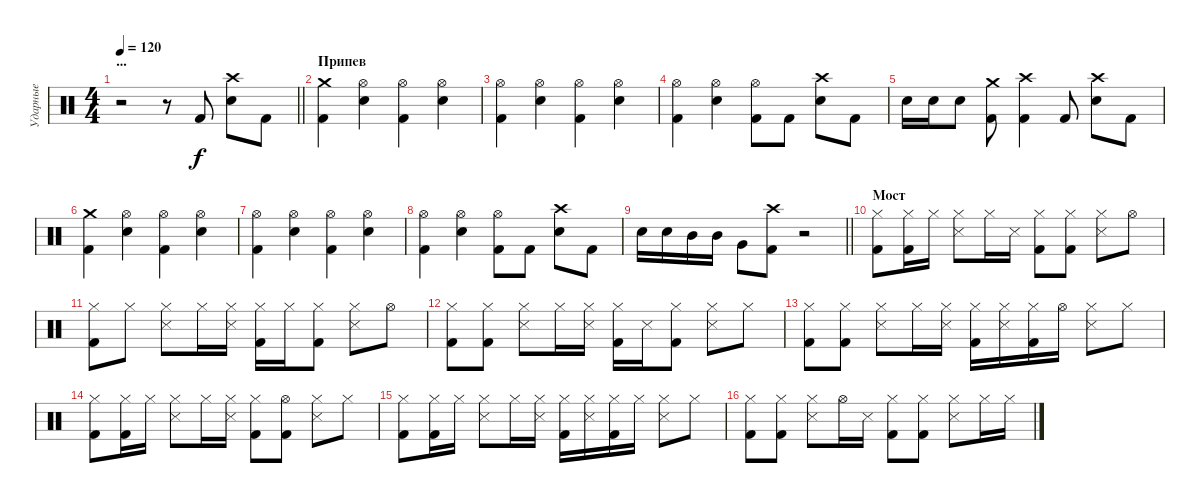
\track ("Ударные" "Ударные") {instrument percussion}
\staff {score}
\articulation defaults
\ts (4 4)
\section ("" "...")
\tempo 120
\clef neutral
\barLineRight lightlight
\ks c
r.2{dy ff} r.8 "Kick (hit) 2".8{dy f} ("Snare (hit) 2" "Crash high (hit)").8 "Kick (hit) 2".8 |
\section ("" "Припев")
("Kick (hit) 2" "Crash medium (hit)").4 ("Snare (hit) 2" "Hi-Hat (open)").4 ("Kick (hit) 2" "Hi-Hat (open)").4 ("Snare (hit) 2" "Hi-Hat (open)").4 |
("Kick (hit) 2" "Hi-Hat (open)").4 ("Snare (hit) 2" "Hi-Hat (open)").4 ("Kick (hit) 2" "Hi-Hat (open)").4 ("Snare (hit) 2" "Hi-Hat (open)").4 |
("Kick (hit) 2" "Hi-Hat (open)").4 ("Snare (hit) 2" "Hi-Hat (open)").4 ("Kick (hit) 2" "Hi-Hat (open)").8 "Kick (hit) 2".8 ("Snare (hit) 2" "Crash high (hit)").8 "Kick (hit) 2".8 |
"Snare (hit) 2".16 "Snare (hit) 2".16 "Snare (hit) 2".8 ("Kick (hit) 2" "Crash medium (hit)").8 ("Kick (hit) 2" "Crash high (hit)").4 "Kick (hit) 2".8 ("Snare (hit) 2" "Crash high (hit)").8 "Kick (hit) 2".8 |
("Kick (hit) 2" "Crash medium (hit)").4 ("Snare (hit) 2" "Hi-Hat (open)").4 ("Kick (hit) 2" "Hi-Hat (open)").4 ("Snare (hit) 2" "Hi-Hat (open)").4 |
("Kick (hit) 2" "Hi-Hat (open)").4 ("Snare (hit) 2" "Hi-Hat (open)").4 ("Kick (hit) 2" "Hi-Hat (open)").4 ("Snare (hit) 2" "Hi-Hat (open)").4 |
("Kick (hit) 2" "Hi-Hat (open)").4 ("Snare (hit) 2" "Hi-Hat (open)").4 ("Kick (hit) 2" "Hi-Hat (open)").8 "Kick (hit) 2".8 ("Snare (hit) 2" "Crash high (hit)").8 "Kick (hit) 2".8 |
\barLineRight lightlight "Snare (hit) 2".16 "Snare (hit) 2".16 "Mid Tom (hit)".16 "Mid Tom (hit)".16 "Very Low Tom (hit)".8
("Kick (hit) 2" "Crash high (hit)").8 r.2 |
\section ("" "Мост")
("Kick (hit) 2" "Hi-Hat (closed)").8 ("Kick (hit) 2" "Hi-Hat (closed)").16 "Hi-Hat (closed)".16 ("Snare (side stick) 3" "Hi-Hat (closed)").8 "Hi-Hat (closed)".16 "Snare (side stick) 3".16 ("Kick (hit) 2" "Hi-Hat (closed)").8 ("Kick (hit) 2" "Hi-Hat (closed)").8 ("Snare (side stick) 3" "Hi-Hat (closed)").8 "Hi-Hat (open)".8 |
("Kick (hit) 2" "Hi-Hat (closed)").8 "Hi-Hat (closed)".8 ("Snare (side stick) 3" "Hi-Hat (closed)").8 "Hi-Hat (closed)".16 ("Snare (side stick) 3" "Hi-Hat (closed)").16 ("Kick (hit) 2" "Hi-Hat (closed)").16 "Hi-Hat (closed)".16 ("Kick (hit) 2" "Hi-Hat (closed)").8 ("Snare (side stick) 3" "Hi-Hat (closed)").8 "Hi-Hat (open)".8 |
("Kick (hit) 2" "Hi-Hat (closed)").8 ("Kick (hit) 2" "Hi-Hat (closed)").8 ("Snare (side stick) 3" "Hi-Hat (closed)").8 "Hi-Hat (closed)".16 ("Snare (side stick) 3" "Hi-Hat (closed)").16 ("Kick (hit) 2" "Hi-Hat (closed)").16 "Snare (side stick) 3".16 ("Kick (hit) 2" "Hi-Hat (closed)").8 ("Snare (side stick) 3" "Hi-Hat (closed)").8 "Hi-Hat (closed)".8 |
("Kick (hit) 2" "Hi-Hat (closed)").8 ("Kick (hit) 2" "Hi-Hat (closed)").8 ("Snare (side stick) 3" "Hi-Hat (closed)").8 "Hi-Hat (closed)".16 ("Snare (side stick) 3" "Hi-Hat (closed)").16 ("Kick (hit) 2" "Hi-Hat (closed)").16 ("Snare (side stick) 3" "Hi-Hat (closed)").16 ("Kick (hit) 2" "Hi-Hat (closed)").16 "Hi-Hat (open)".16 ("Snare (side stick) 3" "Hi-Hat (closed)").8 "Hi-Hat (closed)".8 |
("Kick (hit) 2" "Hi-Hat (closed)").8 ("Kick (hit) 2" "Hi-Hat (closed)").16 "Hi-Hat (closed)".16 ("Snare (side stick) 3" "Hi-Hat (closed)").8 "Hi-Hat (closed)".16 ("Snare (side stick) 3" "Hi-Hat (closed)").16 ("Kick (hit) 2" "Hi-Hat (closed)").8 ("Kick (hit) 2" "Hi-Hat (open)").8 ("Snare (side stick) 3" "Hi-Hat (closed)").8 "Hi-Hat (closed)".8 |
("Kick (hit) 2" "Hi-Hat (closed)").8 ("Kick (hit) 2" "Hi-Hat (closed)").16 "Hi-Hat (closed)".16 ("Snare (side stick) 3" "Hi-Hat (closed)").8 "Hi-Hat (closed)".16 ("Snare (side stick) 3" "Hi-Hat (closed)").16 ("Kick (hit) 2" "Hi-Hat (closed)").16 ("Snare (side stick) 3" "Hi-Hat (closed)").16 ("Kick (hit) 2" "Hi-Hat (closed)").16 "Hi-Hat (closed)".16 ("Snare (side stick) 3" "Hi-Hat (closed)").8 "Hi-Hat (closed)".8 |
("Kick (hit) 2" "Hi-Hat (closed)").8 ("Kick (hit) 2" "Hi-Hat (closed)").8 ("Snare (side stick) 3" "Hi-Hat (closed)").8 "Hi-Hat (open)".16 "Snare (side stick) 3".16 ("Kick (hit) 2" "Hi-Hat (closed)").8 ("Kick (hit) 2" "Hi-Hat (closed)").8 ("Snare (side stick) 3" "Hi-Hat (closed)").8 "Hi-Hat (closed)".16 "Hi-Hat (closed)".16
